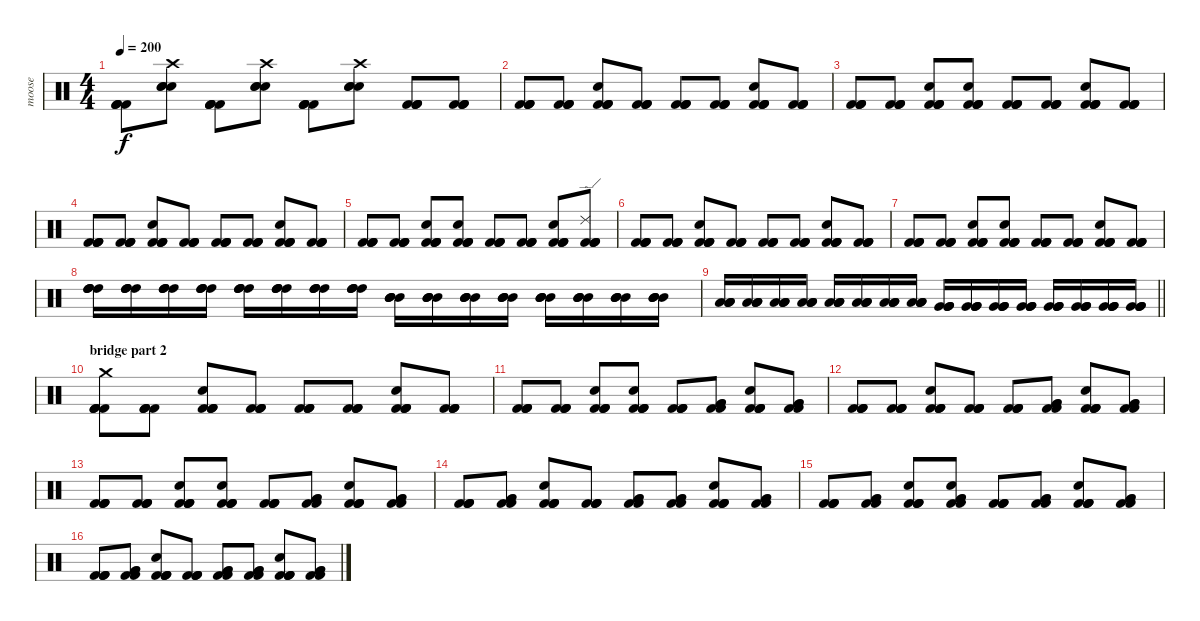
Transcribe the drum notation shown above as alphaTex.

\track ("moose" "moose") {instrument percussion}
\staff {score}
\articulation defaults
\ts (4 4)
\tempo 200
\clef neutral
\ks c
("Kick (hit) 2" "Kick (hit) 2" "Kick (hit) 2" "Kick (hit) 2").8{dy f} ("Electric Snare (hit)" "Electric Snare (hit)" "Electric Snare (hit)" "Crash high (hit)").8 ("Kick (hit) 2" "Kick (hit) 2" "Kick (hit) 2" "Kick (hit) 2").8 ("Electric Snare (hit)" "Electric Snare (hit)" "Electric Snare (hit)" "Crash high (hit)").8 ("Kick (hit) 2" "Kick (hit) 2" "Kick (hit) 2" "Kick (hit) 2").8 ("Electric Snare (hit)" "Electric Snare (hit)" "Electric Snare (hit)" "Crash high (hit)").8 ("Kick (hit) 2" "Kick (hit) 2" "Kick (hit) 2" "Kick (hit) 2").8 ("Kick (hit) 2" "Kick (hit) 2" "Kick (hit) 2" "Kick (hit) 2").8 |
("Kick (hit) 2" "Kick (hit) 2" "Kick (hit) 2" "Kick (hit) 2").8 ("Kick (hit) 2" "Kick (hit) 2" "Kick (hit) 2" "Kick (hit) 2").8 ("Kick (hit) 2" "Kick (hit) 2" "Kick (hit) 2" "Kick (hit) 2" "Hand Clap (hit)").8 ("Kick (hit) 2" "Kick (hit) 2" "Kick (hit) 2" "Kick (hit) 2").8 ("Kick (hit) 2" "Kick (hit) 2" "Kick (hit) 2" "Kick (hit) 2").8 ("Kick (hit) 2" "Kick (hit) 2" "Kick (hit) 2" "Kick (hit) 2").8 ("Kick (hit) 2" "Kick (hit) 2" "Kick (hit) 2" "Kick (hit) 2" "Hand Clap (hit)").8 ("Kick (hit) 2" "Kick (hit) 2" "Kick (hit) 2" "Kick (hit) 2").8 |
("Kick (hit) 2" "Kick (hit) 2" "Kick (hit) 2" "Kick (hit) 2").8 ("Kick (hit) 2" "Kick (hit) 2" "Kick (hit) 2" "Kick (hit) 2").8 ("Kick (hit) 2" "Kick (hit) 2" "Kick (hit) 2" "Kick (hit) 2" "Hand Clap (hit)").8 ("Kick (hit) 2" "Kick (hit) 2" "Kick (hit) 2" "Kick (hit) 2" "Hand Clap (hit)").8 ("Kick (hit) 2" "Kick (hit) 2" "Kick (hit) 2" "Kick (hit) 2").8 ("Kick (hit) 2" "Kick (hit) 2" "Kick (hit) 2" "Kick (hit) 2").8 ("Kick (hit) 2" "Kick (hit) 2" "Kick (hit) 2" "Kick (hit) 2" "Hand Clap (hit)").8 ("Kick (hit) 2" "Kick (hit) 2" "Kick (hit) 2" "Kick (hit) 2").8 |
("Kick (hit) 2" "Kick (hit) 2" "Kick (hit) 2" "Kick (hit) 2").8 ("Kick (hit) 2" "Kick (hit) 2" "Kick (hit) 2" "Kick (hit) 2").8 ("Kick (hit) 2" "Kick (hit) 2" "Kick (hit) 2" "Kick (hit) 2" "Hand Clap (hit)").8 ("Kick (hit) 2" "Kick (hit) 2" "Kick (hit) 2" "Kick (hit) 2").8 ("Kick (hit) 2" "Kick (hit) 2" "Kick (hit) 2" "Kick (hit) 2").8 ("Kick (hit) 2" "Kick (hit) 2" "Kick (hit) 2" "Kick (hit) 2").8 ("Kick (hit) 2" "Kick (hit) 2" "Kick (hit) 2" "Kick (hit) 2" "Hand Clap (hit)").8 ("Kick (hit) 2" "Kick (hit) 2" "Kick (hit) 2" "Kick (hit) 2").8 |
("Kick (hit) 2" "Kick (hit) 2" "Kick (hit) 2" "Kick (hit) 2").8 ("Kick (hit) 2" "Kick (hit) 2" "Kick (hit) 2" "Kick (hit) 2").8 ("Kick (hit) 2" "Kick (hit) 2" "Kick (hit) 2" "Kick (hit) 2" "Hand Clap (hit)").8 ("Kick (hit) 2" "Kick (hit) 2" "Kick (hit) 2" "Kick (hit) 2" "Hand Clap (hit)").8 ("Kick (hit) 2" "Kick (hit) 2" "Kick (hit) 2" "Kick (hit) 2").8 ("Kick (hit) 2" "Kick (hit) 2" "Kick (hit) 2" "Kick (hit) 2").8 ("Kick (hit) 2" "Kick (hit) 2" "Kick (hit) 2" "Kick (hit) 2" "Hand Clap (hit)").8 ("Kick (hit) 2" "Kick (hit) 2" "Kick (hit) 2" "Kick (hit) 2" "Ride (edge) 2").8 |
("Kick (hit) 2" "Kick (hit) 2" "Kick (hit) 2" "Kick (hit) 2").8 ("Kick (hit) 2" "Kick (hit) 2" "Kick (hit) 2" "Kick (hit) 2").8 ("Kick (hit) 2" "Kick (hit) 2" "Kick (hit) 2" "Kick (hit) 2" "Hand Clap (hit)").8 ("Kick (hit) 2" "Kick (hit) 2" "Kick (hit) 2" "Kick (hit) 2").8 ("Kick (hit) 2" "Kick (hit) 2" "Kick (hit) 2" "Kick (hit) 2").8 ("Kick (hit) 2" "Kick (hit) 2" "Kick (hit) 2" "Kick (hit) 2").8 ("Kick (hit) 2" "Kick (hit) 2" "Kick (hit) 2" "Kick (hit) 2" "Hand Clap (hit)").8 ("Kick (hit) 2" "Kick (hit) 2" "Kick (hit) 2" "Kick (hit) 2").8 |
("Kick (hit) 2" "Kick (hit) 2" "Kick (hit) 2" "Kick (hit) 2").8 ("Kick (hit) 2" "Kick (hit) 2" "Kick (hit) 2" "Kick (hit) 2").8 ("Kick (hit) 2" "Kick (hit) 2" "Kick (hit) 2" "Kick (hit) 2" "Hand Clap (hit)").8 ("Kick (hit) 2" "Kick (hit) 2" "Kick (hit) 2" "Kick (hit) 2" "Hand Clap (hit)").8 ("Kick (hit) 2" "Kick (hit) 2" "Kick (hit) 2" "Kick (hit) 2").8 ("Kick (hit) 2" "Kick (hit) 2" "Kick (hit) 2" "Kick (hit) 2").8 ("Kick (hit) 2" "Kick (hit) 2" "Kick (hit) 2" "Kick (hit) 2" "Hand Clap (hit)").8 ("Kick (hit) 2" "Kick (hit) 2" "Kick (hit) 2" "Kick (hit) 2").8 |
("High Tom (hit)" "High Tom (hit)" "High Tom (hit)" "High Tom (hit)").16 ("High Tom (hit)" "High Tom (hit)" "High Tom (hit)" "High Tom (hit)").16 ("High Tom (hit)" "High Tom (hit)" "High Tom (hit)" "High Tom (hit)").16 ("High Tom (hit)" "High Tom (hit)" "High Tom (hit)" "High Tom (hit)").16 ("High Tom (hit)" "High Tom (hit)" "High Tom (hit)" "High Tom (hit)").16 ("High Tom (hit)" "High Tom (hit)" "High Tom (hit)" "High Tom (hit)").16 ("High Tom (hit)" "High Tom (hit)" "High Tom (hit)" "High Tom (hit)").16 ("High Tom (hit)" "High Tom (hit)" "High Tom (hit)" "High Tom (hit)").16 ("Mid Tom (hit)" "Mid Tom (hit)" "Mid Tom (hit)" "Mid Tom (hit)").16 ("Mid Tom (hit)" "Mid Tom (hit)" "Mid Tom (hit)" "Mid Tom (hit)").16 ("Mid Tom (hit)" "Mid Tom (hit)" "Mid Tom (hit)" "Mid Tom (hit)").16 ("Mid Tom (hit)" "Mid Tom (hit)" "Mid Tom (hit)" "Mid Tom (hit)").16 ("Mid Tom (hit)" "Mid Tom (hit)" "Mid Tom (hit)" "Mid Tom (hit)").16 ("Mid Tom (hit)" "Mid Tom (hit)" "Mid Tom (hit)" "Mid Tom (hit)").16 ("Mid Tom (hit)" "Mid Tom (hit)" "Mid Tom (hit)" "Mid Tom (hit)").16 ("Mid Tom (hit)" "Mid Tom (hit)" "Mid Tom (hit)" "Mid Tom (hit)").16 |
\barLineRight lightlight
("Low Tom (hit)" "Low Tom (hit)" "Low Tom (hit)" "Low Tom (hit)").16 ("Low Tom (hit)" "Low Tom (hit)" "Low Tom (hit)" "Low Tom (hit)").16 ("Low Tom (hit)" "Low Tom (hit)" "Low Tom (hit)" "Low Tom (hit)").16 ("Low Tom (hit)" "Low Tom (hit)" "Low Tom (hit)" "Low Tom (hit)").16 ("Low Tom (hit)" "Low Tom (hit)" "Low Tom (hit)" "Low Tom (hit)").16 ("Low Tom (hit)" "Low Tom (hit)" "Low Tom (hit)" "Low Tom (hit)").16 ("Low Tom (hit)" "Low Tom (hit)" "Low Tom (hit)" "Low Tom (hit)").16 ("Low Tom (hit)" "Low Tom (hit)" "Low Tom (hit)" "Low Tom (hit)").16 ("Very Low Tom (hit)" "Very Low Tom (hit)" "Very Low Tom (hit)" "Very Low Tom (hit)").16 ("Very Low Tom (hit)" "Very Low Tom (hit)" "Very Low Tom (hit)" "Very Low Tom (hit)").16 ("Very Low Tom (hit)" "Very Low Tom (hit)" "Very Low Tom (hit)" "Very Low Tom (hit)").16 ("Very Low Tom (hit)" "Very Low Tom (hit)" "Very Low Tom (hit)" "Very Low Tom (hit)").16 ("Very Low Tom (hit)" "Very Low Tom (hit)" "Very Low Tom (hit)" "Very Low Tom (hit)").16 ("Very Low Tom (hit)" "Very Low Tom (hit)" "Very Low Tom (hit)" "Very Low Tom (hit)").16 ("Very Low Tom (hit)" "Very Low Tom (hit)" "Very Low Tom (hit)" "Very Low Tom (hit)").16 ("Very Low Tom (hit)" "Very Low Tom (hit)" "Very Low Tom (hit)" "Very Low Tom (hit)").16 |
\section ("" "bridge part 2")
("Kick (hit) 2" "Kick (hit) 2" "Kick (hit) 2" "Kick (hit) 2" "Crash medium (hit)").8 ("Kick (hit) 2" "Kick (hit) 2" "Kick (hit) 2" "Kick (hit) 2").8 ("Kick (hit) 2" "Kick (hit) 2" "Kick (hit) 2" "Kick (hit) 2" "Hand Clap (hit)").8 ("Kick (hit) 2" "Kick (hit) 2" "Kick (hit) 2" "Kick (hit) 2").8 ("Kick (hit) 2" "Kick (hit) 2" "Kick (hit) 2" "Kick (hit) 2").8 ("Kick (hit) 2" "Kick (hit) 2" "Kick (hit) 2" "Kick (hit) 2").8 ("Kick (hit) 2" "Kick (hit) 2" "Kick (hit) 2" "Kick (hit) 2" "Hand Clap (hit)").8 ("Kick (hit) 2" "Kick (hit) 2" "Kick (hit) 2" "Kick (hit) 2").8 |
("Kick (hit) 2" "Kick (hit) 2" "Kick (hit) 2" "Kick (hit) 2").8 ("Kick (hit) 2" "Kick (hit) 2" "Kick (hit) 2" "Kick (hit) 2").8 ("Kick (hit) 2" "Kick (hit) 2" "Kick (hit) 2" "Kick (hit) 2" "Hand Clap (hit)").8 ("Kick (hit) 2" "Kick (hit) 2" "Kick (hit) 2" "Kick (hit) 2" "Hand Clap (hit)").8 ("Kick (hit) 2" "Kick (hit) 2" "Kick (hit) 2" "Kick (hit) 2").8 ("Kick (hit) 2" "Kick (hit) 2" "Very Low Tom (hit)" "Very Low Tom (hit)").8 ("Kick (hit) 2" "Kick (hit) 2" "Kick (hit) 2" "Kick (hit) 2" "Hand Clap (hit)").8 ("Kick (hit) 2" "Kick (hit) 2" "Very Low Tom (hit)" "Very Low Tom (hit)").8 |
("Kick (hit) 2" "Kick (hit) 2" "Kick (hit) 2" "Kick (hit) 2").8 ("Kick (hit) 2" "Kick (hit) 2" "Kick (hit) 2" "Kick (hit) 2").8 ("Kick (hit) 2" "Kick (hit) 2" "Kick (hit) 2" "Kick (hit) 2" "Hand Clap (hit)").8 ("Kick (hit) 2" "Kick (hit) 2" "Kick (hit) 2" "Kick (hit) 2").8 ("Kick (hit) 2" "Kick (hit) 2" "Kick (hit) 2" "Kick (hit) 2").8 ("Kick (hit) 2" "Kick (hit) 2" "Very Low Tom (hit)" "Very Low Tom (hit)").8 ("Kick (hit) 2" "Kick (hit) 2" "Kick (hit) 2" "Kick (hit) 2" "Hand Clap (hit)").8 ("Kick (hit) 2" "Kick (hit) 2" "Very Low Tom (hit)" "Very Low Tom (hit)").8 |
("Kick (hit) 2" "Kick (hit) 2" "Kick (hit) 2" "Kick (hit) 2").8 ("Kick (hit) 2" "Kick (hit) 2" "Kick (hit) 2" "Kick (hit) 2").8 ("Kick (hit) 2" "Kick (hit) 2" "Kick (hit) 2" "Kick (hit) 2" "Hand Clap (hit)").8 ("Kick (hit) 2" "Kick (hit) 2" "Kick (hit) 2" "Kick (hit) 2" "Hand Clap (hit)").8 ("Kick (hit) 2" "Kick (hit) 2" "Kick (hit) 2" "Kick (hit) 2").8 ("Kick (hit) 2" "Kick (hit) 2" "Very Low Tom (hit)" "Very Low Tom (hit)").8 ("Kick (hit) 2" "Kick (hit) 2" "Kick (hit) 2" "Kick (hit) 2" "Hand Clap (hit)").8 ("Kick (hit) 2" "Kick (hit) 2" "Very Low Tom (hit)" "Very Low Tom (hit)").8 |
("Kick (hit) 2" "Kick (hit) 2" "Kick (hit) 2" "Kick (hit) 2").8 ("Kick (hit) 2" "Kick (hit) 2" "Very Low Tom (hit)" "Very Low Tom (hit)").8 ("Kick (hit) 2" "Kick (hit) 2" "Kick (hit) 2" "Kick (hit) 2" "Hand Clap (hit)").8 ("Kick (hit) 2" "Kick (hit) 2" "Kick (hit) 2" "Kick (hit) 2").8 ("Kick (hit) 2" "Kick (hit) 2" "Very Low Tom (hit)" "Very Low Tom (hit)").8 ("Kick (hit) 2" "Kick (hit) 2" "Very Low Tom (hit)" "Very Low Tom (hit)").8 ("Kick (hit) 2" "Kick (hit) 2" "Kick (hit) 2" "Kick (hit) 2" "Hand Clap (hit)").8 ("Kick (hit) 2" "Kick (hit) 2" "Very Low Tom (hit)" "Very Low Tom (hit)").8 |
("Kick (hit) 2" "Kick (hit) 2" "Kick (hit) 2" "Kick (hit) 2").8 ("Kick (hit) 2" "Kick (hit) 2" "Very Low Tom (hit)" "Very Low Tom (hit)").8 ("Kick (hit) 2" "Kick (hit) 2" "Kick (hit) 2" "Kick (hit) 2" "Hand Clap (hit)").8 ("Kick (hit) 2" "Kick (hit) 2" "Very Low Tom (hit)" "Very Low Tom (hit)" "Hand Clap (hit)").8 ("Kick (hit) 2" "Kick (hit) 2" "Kick (hit) 2" "Kick (hit) 2").8 ("Kick (hit) 2" "Kick (hit) 2" "Very Low Tom (hit)" "Very Low Tom (hit)").8 ("Kick (hit) 2" "Kick (hit) 2" "Kick (hit) 2" "Kick (hit) 2" "Hand Clap (hit)").8 ("Kick (hit) 2" "Kick (hit) 2" "Very Low Tom (hit)" "Very Low Tom (hit)").8 |
("Kick (hit) 2" "Kick (hit) 2" "Kick (hit) 2" "Kick (hit) 2").8 ("Kick (hit) 2" "Kick (hit) 2" "Very Low Tom (hit)" "Very Low Tom (hit)").8 ("Kick (hit) 2" "Kick (hit) 2" "Kick (hit) 2" "Kick (hit) 2" "Hand Clap (hit)").8 ("Kick (hit) 2" "Kick (hit) 2" "Kick (hit) 2" "Kick (hit) 2").8 ("Kick (hit) 2" "Kick (hit) 2" "Very Low Tom (hit)" "Very Low Tom (hit)").8 ("Kick (hit) 2" "Kick (hit) 2" "Very Low Tom (hit)" "Very Low Tom (hit)").8 ("Kick (hit) 2" "Kick (hit) 2" "Kick (hit) 2" "Kick (hit) 2" "Hand Clap (hit)").8 ("Kick (hit) 2" "Kick (hit) 2" "Very Low Tom (hit)" "Very Low Tom (hit)").8
